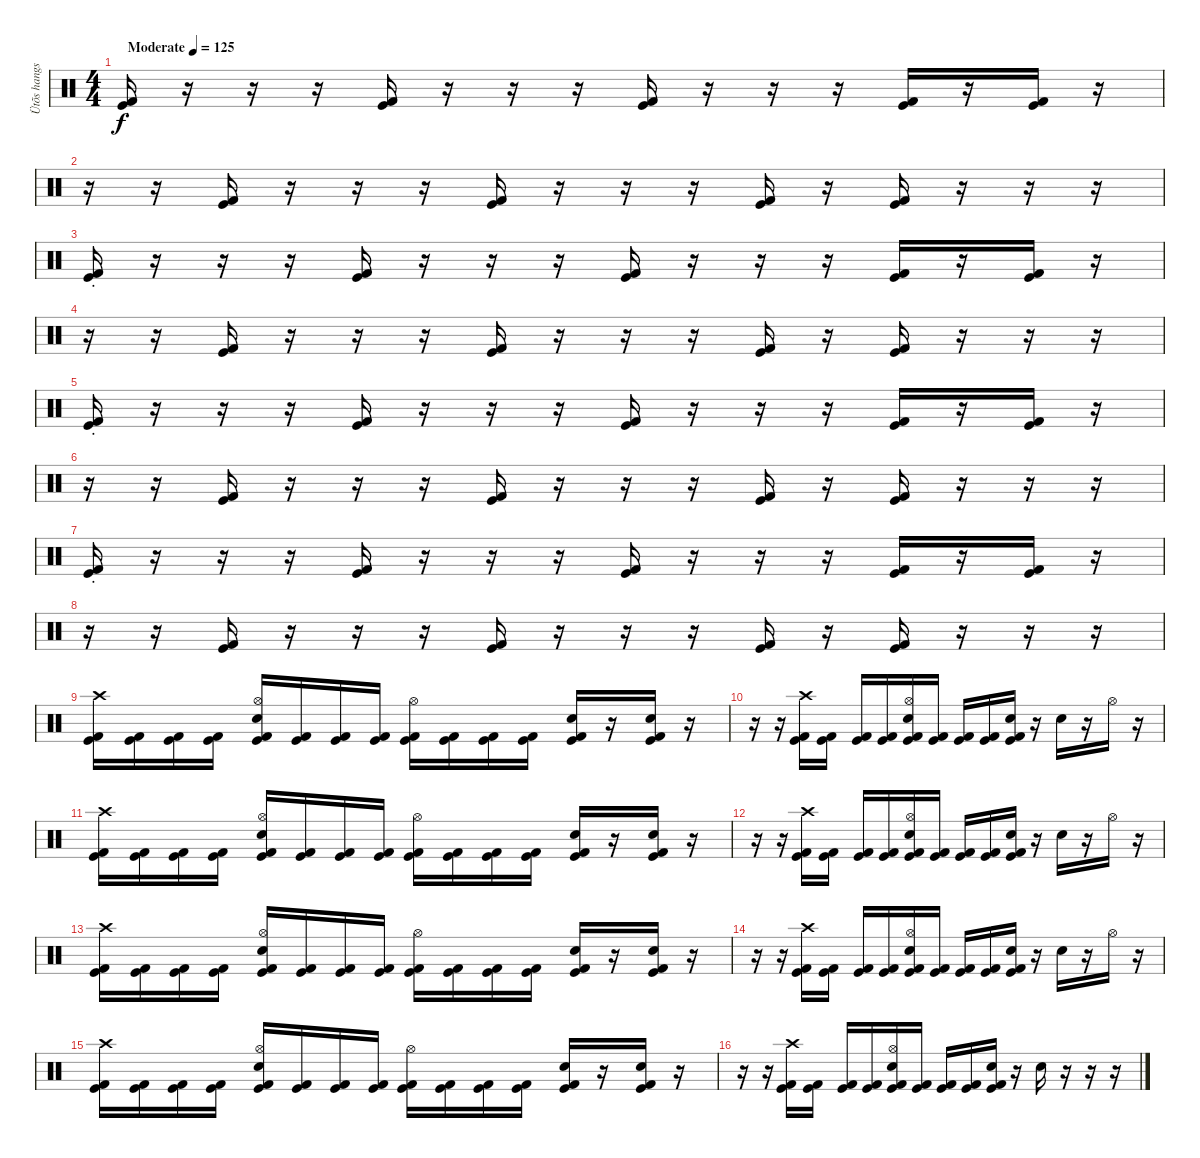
\track ("Ütõs hangszer" "Ütõs hangs") {instrument percussion}
\staff {score}
\articulation defaults
\ts (4 4)
\tempo (125 "Moderate")
\clef neutral
\ks c
("Kick (hit)" "Kick (hit) 2"{st}).16{dy f} r.16 r.16 r.16 ("Kick (hit)" "Kick (hit) 2").16 r.16 r.16 r.16 ("Kick (hit)" "Kick (hit) 2").16 r.16 r.16 r.16 ("Kick (hit)" "Kick (hit) 2").16 r.16 ("Kick (hit)" "Kick (hit) 2").16 r.16 |
r.16 r.16 ("Kick (hit)" "Kick (hit) 2").16 r.16 r.16 r.16 ("Kick (hit)" "Kick (hit) 2").16 r.16 r.16 r.16 ("Kick (hit)" "Kick (hit) 2").16 r.16 ("Kick (hit)" "Kick (hit) 2").16 r.16 r.16 r.16 |
("Kick (hit)" "Kick (hit) 2"{st}).16 r.16 r.16 r.16 ("Kick (hit)" "Kick (hit) 2").16 r.16 r.16 r.16 ("Kick (hit)" "Kick (hit) 2").16 r.16 r.16 r.16 ("Kick (hit)" "Kick (hit) 2").16 r.16 ("Kick (hit)" "Kick (hit) 2").16 r.16 |
r.16 r.16 ("Kick (hit)" "Kick (hit) 2").16 r.16 r.16 r.16 ("Kick (hit)" "Kick (hit) 2").16 r.16 r.16 r.16 ("Kick (hit)" "Kick (hit) 2").16 r.16 ("Kick (hit)" "Kick (hit) 2").16 r.16 r.16 r.16 |
("Kick (hit)" "Kick (hit) 2"{st}).16 r.16 r.16 r.16 ("Kick (hit)" "Kick (hit) 2").16 r.16 r.16 r.16 ("Kick (hit)" "Kick (hit) 2").16 r.16 r.16 r.16 ("Kick (hit)" "Kick (hit) 2").16 r.16 ("Kick (hit)" "Kick (hit) 2").16 r.16 |
r.16 r.16 ("Kick (hit)" "Kick (hit) 2").16 r.16 r.16 r.16 ("Kick (hit)" "Kick (hit) 2").16 r.16 r.16 r.16 ("Kick (hit)" "Kick (hit) 2").16 r.16 ("Kick (hit)" "Kick (hit) 2").16 r.16 r.16 r.16 |
("Kick (hit)" "Kick (hit) 2"{st}).16 r.16 r.16 r.16 ("Kick (hit)" "Kick (hit) 2").16 r.16 r.16 r.16 ("Kick (hit)" "Kick (hit) 2").16 r.16 r.16 r.16 ("Kick (hit)" "Kick (hit) 2").16 r.16 ("Kick (hit)" "Kick (hit) 2").16 r.16 |
r.16 r.16 ("Kick (hit)" "Kick (hit) 2").16 r.16 r.16 r.16 ("Kick (hit)" "Kick (hit) 2").16 r.16 r.16 r.16 ("Kick (hit)" "Kick (hit) 2").16 r.16 ("Kick (hit)" "Kick (hit) 2").16 r.16 r.16 r.16 |
("Crash high (hit)" "Kick (hit)" "Kick (hit) 2").16 ("Kick (hit)" "Kick (hit) 2").16 ("Kick (hit)" "Kick (hit) 2").16 ("Kick (hit)" "Kick (hit) 2").16 ("Hi-Hat (open)" "Snare (hit) 2" "Kick (hit)" "Kick (hit) 2").16 ("Kick (hit)" "Kick (hit) 2").16 ("Kick (hit)" "Kick (hit) 2").16 ("Kick (hit)" "Kick (hit) 2").16 ("Hi-Hat (open)" "Kick (hit)" "Kick (hit) 2").16 ("Kick (hit)" "Kick (hit) 2").16 ("Kick (hit)" "Kick (hit) 2").16 ("Kick (hit)" "Kick (hit) 2").16 ("Snare (hit) 2" "Kick (hit)" "Kick (hit) 2").16 r.16 ("Snare (hit) 2" "Kick (hit)" "Kick (hit) 2").16 r.16 |
r.16 r.16 ("Crash high (hit)" "Kick (hit)" "Kick (hit) 2").16 ("Kick (hit)" "Kick (hit) 2").16 ("Kick (hit)" "Kick (hit) 2").16 ("Kick (hit)" "Kick (hit) 2").16 ("Hi-Hat (open)" "Snare (hit) 2" "Kick (hit)" "Kick (hit) 2").16 ("Kick (hit)" "Kick (hit) 2").16 ("Kick (hit)" "Kick (hit) 2").16 ("Kick (hit)" "Kick (hit) 2").16 ("Snare (hit) 2" "Kick (hit)" "Kick (hit) 2").16 r.16 "Snare (hit) 2".16 r.16 "Hi-Hat (open)".16 r.16 |
("Crash high (hit)" "Kick (hit)" "Kick (hit) 2").16 ("Kick (hit)" "Kick (hit) 2").16 ("Kick (hit)" "Kick (hit) 2").16 ("Kick (hit)" "Kick (hit) 2").16 ("Hi-Hat (open)" "Snare (hit) 2" "Kick (hit)" "Kick (hit) 2").16 ("Kick (hit)" "Kick (hit) 2").16 ("Kick (hit)" "Kick (hit) 2").16 ("Kick (hit)" "Kick (hit) 2").16 ("Hi-Hat (open)" "Kick (hit)" "Kick (hit) 2").16 ("Kick (hit)" "Kick (hit) 2").16 ("Kick (hit)" "Kick (hit) 2").16 ("Kick (hit)" "Kick (hit) 2").16 ("Snare (hit) 2" "Kick (hit)" "Kick (hit) 2").16 r.16 ("Snare (hit) 2" "Kick (hit)" "Kick (hit) 2").16 r.16 |
r.16 r.16 ("Crash high (hit)" "Kick (hit)" "Kick (hit) 2").16 ("Kick (hit)" "Kick (hit) 2").16 ("Kick (hit)" "Kick (hit) 2").16 ("Kick (hit)" "Kick (hit) 2").16 ("Hi-Hat (open)" "Snare (hit) 2" "Kick (hit)" "Kick (hit) 2").16 ("Kick (hit)" "Kick (hit) 2").16 ("Kick (hit)" "Kick (hit) 2").16 ("Kick (hit)" "Kick (hit) 2").16 ("Snare (hit) 2" "Kick (hit)" "Kick (hit) 2").16 r.16 "Snare (hit) 2".16 r.16 "Hi-Hat (open)".16 r.16 |
("Crash high (hit)" "Kick (hit)" "Kick (hit) 2").16 ("Kick (hit)" "Kick (hit) 2").16 ("Kick (hit)" "Kick (hit) 2").16 ("Kick (hit)" "Kick (hit) 2").16 ("Hi-Hat (open)" "Snare (hit) 2" "Kick (hit)" "Kick (hit) 2").16 ("Kick (hit)" "Kick (hit) 2").16 ("Kick (hit)" "Kick (hit) 2").16 ("Kick (hit)" "Kick (hit) 2").16 ("Hi-Hat (open)" "Kick (hit)" "Kick (hit) 2").16 ("Kick (hit)" "Kick (hit) 2").16 ("Kick (hit)" "Kick (hit) 2").16 ("Kick (hit)" "Kick (hit) 2").16 ("Snare (hit) 2" "Kick (hit)" "Kick (hit) 2").16 r.16 ("Snare (hit) 2" "Kick (hit)" "Kick (hit) 2").16 r.16 |
r.16 r.16 ("Crash high (hit)" "Kick (hit)" "Kick (hit) 2").16 ("Kick (hit)" "Kick (hit) 2").16 ("Kick (hit)" "Kick (hit) 2").16 ("Kick (hit)" "Kick (hit) 2").16 ("Hi-Hat (open)" "Snare (hit) 2" "Kick (hit)" "Kick (hit) 2").16 ("Kick (hit)" "Kick (hit) 2").16 ("Kick (hit)" "Kick (hit) 2").16 ("Kick (hit)" "Kick (hit) 2").16 ("Snare (hit) 2" "Kick (hit)" "Kick (hit) 2").16 r.16 "Snare (hit) 2".16 r.16 "Hi-Hat (open)".16 r.16 |
("Crash high (hit)" "Kick (hit)" "Kick (hit) 2").16 ("Kick (hit)" "Kick (hit) 2").16 ("Kick (hit)" "Kick (hit) 2").16 ("Kick (hit)" "Kick (hit) 2").16 ("Hi-Hat (open)" "Snare (hit) 2" "Kick (hit)" "Kick (hit) 2").16 ("Kick (hit)" "Kick (hit) 2").16 ("Kick (hit)" "Kick (hit) 2").16 ("Kick (hit)" "Kick (hit) 2").16 ("Hi-Hat (open)" "Kick (hit)" "Kick (hit) 2").16 ("Kick (hit)" "Kick (hit) 2").16 ("Kick (hit)" "Kick (hit) 2").16 ("Kick (hit)" "Kick (hit) 2").16 ("Snare (hit) 2" "Kick (hit)" "Kick (hit) 2").16 r.16 ("Snare (hit) 2" "Kick (hit)" "Kick (hit) 2").16 r.16 |
r.16 r.16 ("Crash high (hit)" "Kick (hit)" "Kick (hit) 2").16 ("Kick (hit)" "Kick (hit) 2").16 ("Kick (hit)" "Kick (hit) 2").16 ("Kick (hit)" "Kick (hit) 2").16 ("Hi-Hat (open)" "Snare (hit) 2" "Kick (hit)" "Kick (hit) 2").16 ("Kick (hit)" "Kick (hit) 2").16 ("Kick (hit)" "Kick (hit) 2").16 ("Kick (hit)" "Kick (hit) 2").16 ("Snare (hit) 2" "Kick (hit)" "Kick (hit) 2").16 r.16 "Snare (hit) 2".16 r.16 r.16 r.16
